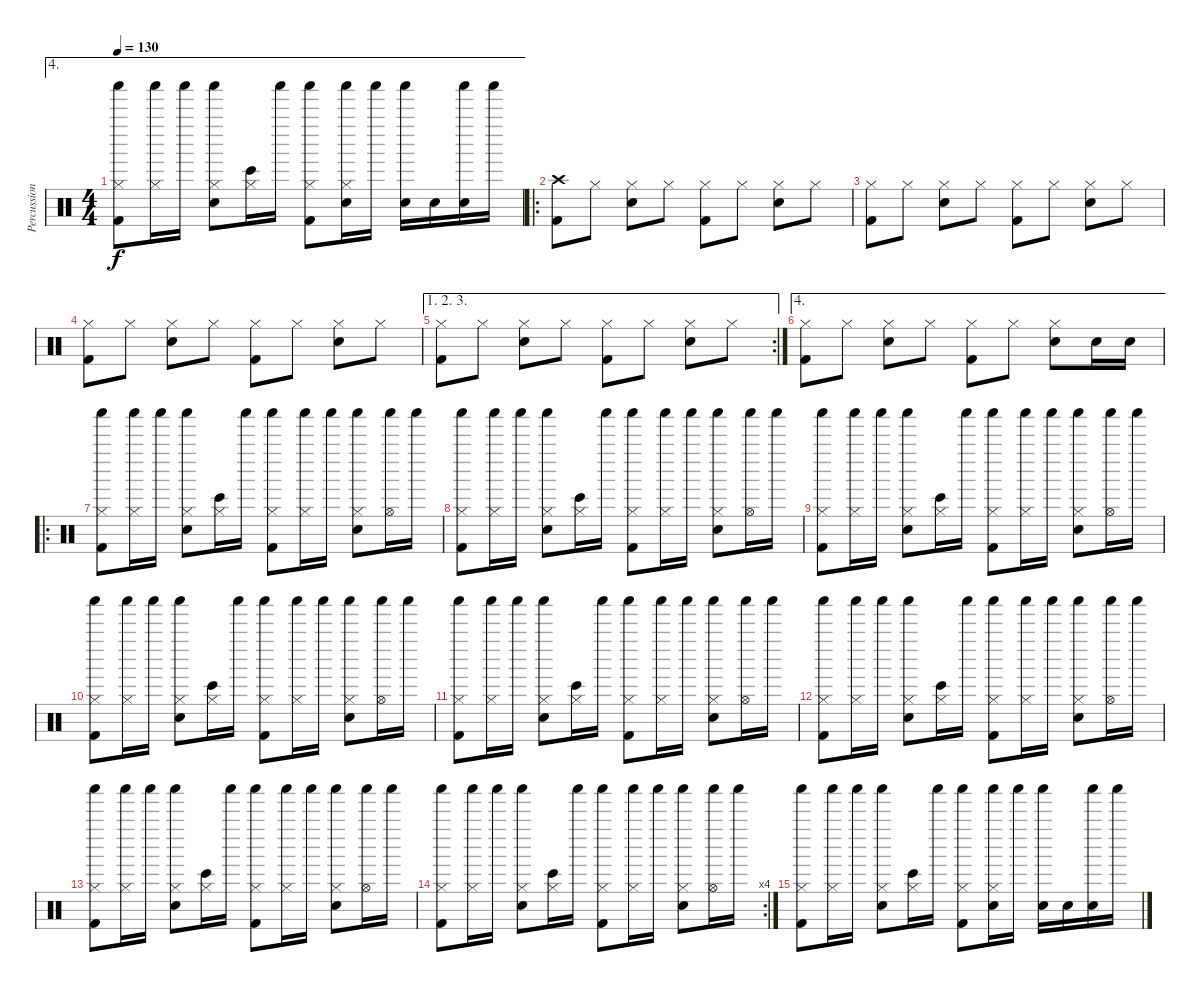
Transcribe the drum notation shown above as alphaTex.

\track ("Percussion" "Percussion") {instrument percussion}
\staff {score}
\articulation defaults
\ae 4
\ts (4 4)
\tempo 130
\clef neutral
\ks c
("Hi-Hat (closed)" "Kick (hit) 2" "Shaker (hit)").8{dy f} ("Hi-Hat (closed)" "Shaker (hit)").16 "Shaker (hit)".16 ("Hi-Hat (closed)" "Electric Snare (hit)" "Shaker (hit)").8 ("Hi-Hat (closed)" "Bongo High (hit)").16 "Shaker (hit)".16 ("Hi-Hat (closed)" "Kick (hit) 2" "Shaker (hit)").8 ("Hi-Hat (closed)" "Electric Snare (hit)" "Shaker (hit)").16 "Shaker (hit)".16 ("Electric Snare (hit)" "Shaker (hit)").16 "Electric Snare (hit)".16 ("Electric Snare (hit)" "Shaker (hit)").16 "Shaker (hit)".16 |
\ro
("Crash high (hit)" "Kick (hit) 2").8 "Hi-Hat (closed)".8 ("Hi-Hat (closed)" "Electric Snare (hit)").8 "Hi-Hat (closed)".8 ("Hi-Hat (closed)" "Kick (hit) 2").8 "Hi-Hat (closed)".8 ("Hi-Hat (closed)" "Electric Snare (hit)").8 "Hi-Hat (closed)".8 |
("Hi-Hat (closed)" "Kick (hit) 2").8 "Hi-Hat (closed)".8 ("Hi-Hat (closed)" "Electric Snare (hit)").8 "Hi-Hat (closed)".8 ("Hi-Hat (closed)" "Kick (hit) 2").8 "Hi-Hat (closed)".8 ("Hi-Hat (closed)" "Electric Snare (hit)").8 "Hi-Hat (closed)".8 |
("Hi-Hat (closed)" "Kick (hit) 2").8 "Hi-Hat (closed)".8 ("Hi-Hat (closed)" "Electric Snare (hit)").8 "Hi-Hat (closed)".8 ("Hi-Hat (closed)" "Kick (hit) 2").8 "Hi-Hat (closed)".8 ("Hi-Hat (closed)" "Electric Snare (hit)").8 "Hi-Hat (closed)".8 |
\ae (1 2 3)
\rc 2
("Hi-Hat (closed)" "Kick (hit) 2").8 "Hi-Hat (closed)".8 ("Hi-Hat (closed)" "Electric Snare (hit)").8 "Hi-Hat (closed)".8 ("Hi-Hat (closed)" "Kick (hit) 2").8 "Hi-Hat (closed)".8 ("Hi-Hat (closed)" "Electric Snare (hit)").8 "Hi-Hat (closed)".8 |
\ae 4
("Hi-Hat (closed)" "Kick (hit) 2").8 "Hi-Hat (closed)".8 ("Hi-Hat (closed)" "Electric Snare (hit)").8 "Hi-Hat (closed)".8 ("Hi-Hat (closed)" "Kick (hit) 2").8 "Hi-Hat (closed)".8 ("Hi-Hat (closed)" "Electric Snare (hit)").8 "Electric Snare (hit)".16 "Electric Snare (hit)".16 |
\ro
("Hi-Hat (closed)" "Kick (hit) 2" "Shaker (hit)").8 ("Hi-Hat (closed)" "Shaker (hit)").16 "Shaker (hit)".16 ("Hi-Hat (closed)" "Electric Snare (hit)" "Shaker (hit)").8 ("Hi-Hat (closed)" "Bongo High (hit)").16 "Shaker (hit)".16 ("Hi-Hat (closed)" "Kick (hit) 2" "Shaker (hit)").8 ("Hi-Hat (closed)" "Shaker (hit)").16 "Shaker (hit)".16 ("Hi-Hat (closed)" "Electric Snare (hit)" "Shaker (hit)").8 ("Hi-Hat (open)" "Shaker (hit)").16 "Shaker (hit)".16 |
("Hi-Hat (closed)" "Kick (hit) 2" "Shaker (hit)").8 ("Hi-Hat (closed)" "Shaker (hit)").16 "Shaker (hit)".16 ("Hi-Hat (closed)" "Electric Snare (hit)" "Shaker (hit)").8 ("Hi-Hat (closed)" "Bongo High (hit)").16 "Shaker (hit)".16 ("Hi-Hat (closed)" "Kick (hit) 2" "Shaker (hit)").8 ("Hi-Hat (closed)" "Shaker (hit)").16 "Shaker (hit)".16 ("Hi-Hat (closed)" "Electric Snare (hit)" "Shaker (hit)").8 ("Hi-Hat (open)" "Shaker (hit)").16 "Shaker (hit)".16 |
("Hi-Hat (closed)" "Kick (hit) 2" "Shaker (hit)").8 ("Hi-Hat (closed)" "Shaker (hit)").16 "Shaker (hit)".16 ("Hi-Hat (closed)" "Electric Snare (hit)" "Shaker (hit)").8 ("Hi-Hat (closed)" "Bongo High (hit)").16 "Shaker (hit)".16 ("Hi-Hat (closed)" "Kick (hit) 2" "Shaker (hit)").8 ("Hi-Hat (closed)" "Shaker (hit)").16 "Shaker (hit)".16 ("Hi-Hat (closed)" "Electric Snare (hit)" "Shaker (hit)").8 ("Hi-Hat (open)" "Shaker (hit)").16 "Shaker (hit)".16 |
("Hi-Hat (closed)" "Kick (hit) 2" "Shaker (hit)").8 ("Hi-Hat (closed)" "Shaker (hit)").16 "Shaker (hit)".16 ("Hi-Hat (closed)" "Electric Snare (hit)" "Shaker (hit)").8 ("Hi-Hat (closed)" "Bongo High (hit)").16 "Shaker (hit)".16 ("Hi-Hat (closed)" "Kick (hit) 2" "Shaker (hit)").8 ("Hi-Hat (closed)" "Shaker (hit)").16 "Shaker (hit)".16 ("Hi-Hat (closed)" "Electric Snare (hit)" "Shaker (hit)").8 ("Hi-Hat (open)" "Shaker (hit)").16 "Shaker (hit)".16 |
("Hi-Hat (closed)" "Kick (hit) 2" "Shaker (hit)").8 ("Hi-Hat (closed)" "Shaker (hit)").16 "Shaker (hit)".16 ("Hi-Hat (closed)" "Electric Snare (hit)" "Shaker (hit)").8 ("Hi-Hat (closed)" "Bongo High (hit)").16 "Shaker (hit)".16 ("Hi-Hat (closed)" "Kick (hit) 2" "Shaker (hit)").8 ("Hi-Hat (closed)" "Shaker (hit)").16 "Shaker (hit)".16 ("Hi-Hat (closed)" "Electric Snare (hit)" "Shaker (hit)").8 ("Hi-Hat (open)" "Shaker (hit)").16 "Shaker (hit)".16 |
("Hi-Hat (closed)" "Kick (hit) 2" "Shaker (hit)").8 ("Hi-Hat (closed)" "Shaker (hit)").16 "Shaker (hit)".16 ("Hi-Hat (closed)" "Electric Snare (hit)" "Shaker (hit)").8 ("Hi-Hat (closed)" "Bongo High (hit)").16 "Shaker (hit)".16 ("Hi-Hat (closed)" "Kick (hit) 2" "Shaker (hit)").8 ("Hi-Hat (closed)" "Shaker (hit)").16 "Shaker (hit)".16 ("Hi-Hat (closed)" "Electric Snare (hit)" "Shaker (hit)").8 ("Hi-Hat (open)" "Shaker (hit)").16 "Shaker (hit)".16 |
("Hi-Hat (closed)" "Kick (hit) 2" "Shaker (hit)").8 ("Hi-Hat (closed)" "Shaker (hit)").16 "Shaker (hit)".16 ("Hi-Hat (closed)" "Electric Snare (hit)" "Shaker (hit)").8 ("Hi-Hat (closed)" "Bongo High (hit)").16 "Shaker (hit)".16 ("Hi-Hat (closed)" "Kick (hit) 2" "Shaker (hit)").8 ("Hi-Hat (closed)" "Shaker (hit)").16 "Shaker (hit)".16 ("Hi-Hat (closed)" "Electric Snare (hit)" "Shaker (hit)").8 ("Hi-Hat (open)" "Shaker (hit)").16 "Shaker (hit)".16 |
\rc 4
("Hi-Hat (closed)" "Kick (hit) 2" "Shaker (hit)").8 ("Hi-Hat (closed)" "Shaker (hit)").16 "Shaker (hit)".16 ("Hi-Hat (closed)" "Electric Snare (hit)" "Shaker (hit)").8 ("Hi-Hat (closed)" "Bongo High (hit)").16 "Shaker (hit)".16 ("Hi-Hat (closed)" "Kick (hit) 2" "Shaker (hit)").8 ("Hi-Hat (closed)" "Shaker (hit)").16 "Shaker (hit)".16 ("Hi-Hat (closed)" "Electric Snare (hit)" "Shaker (hit)").8 ("Hi-Hat (open)" "Shaker (hit)").16 "Shaker (hit)".16 |
("Hi-Hat (closed)" "Kick (hit) 2" "Shaker (hit)").8 ("Hi-Hat (closed)" "Shaker (hit)").16 "Shaker (hit)".16 ("Hi-Hat (closed)" "Electric Snare (hit)" "Shaker (hit)").8 ("Hi-Hat (closed)" "Bongo High (hit)").16 "Shaker (hit)".16 ("Hi-Hat (closed)" "Kick (hit) 2" "Shaker (hit)").8 ("Hi-Hat (closed)" "Electric Snare (hit)" "Shaker (hit)").16 "Shaker (hit)".16 ("Electric Snare (hit)" "Shaker (hit)").16 "Electric Snare (hit)".16 ("Electric Snare (hit)" "Shaker (hit)").16 "Shaker (hit)".16
